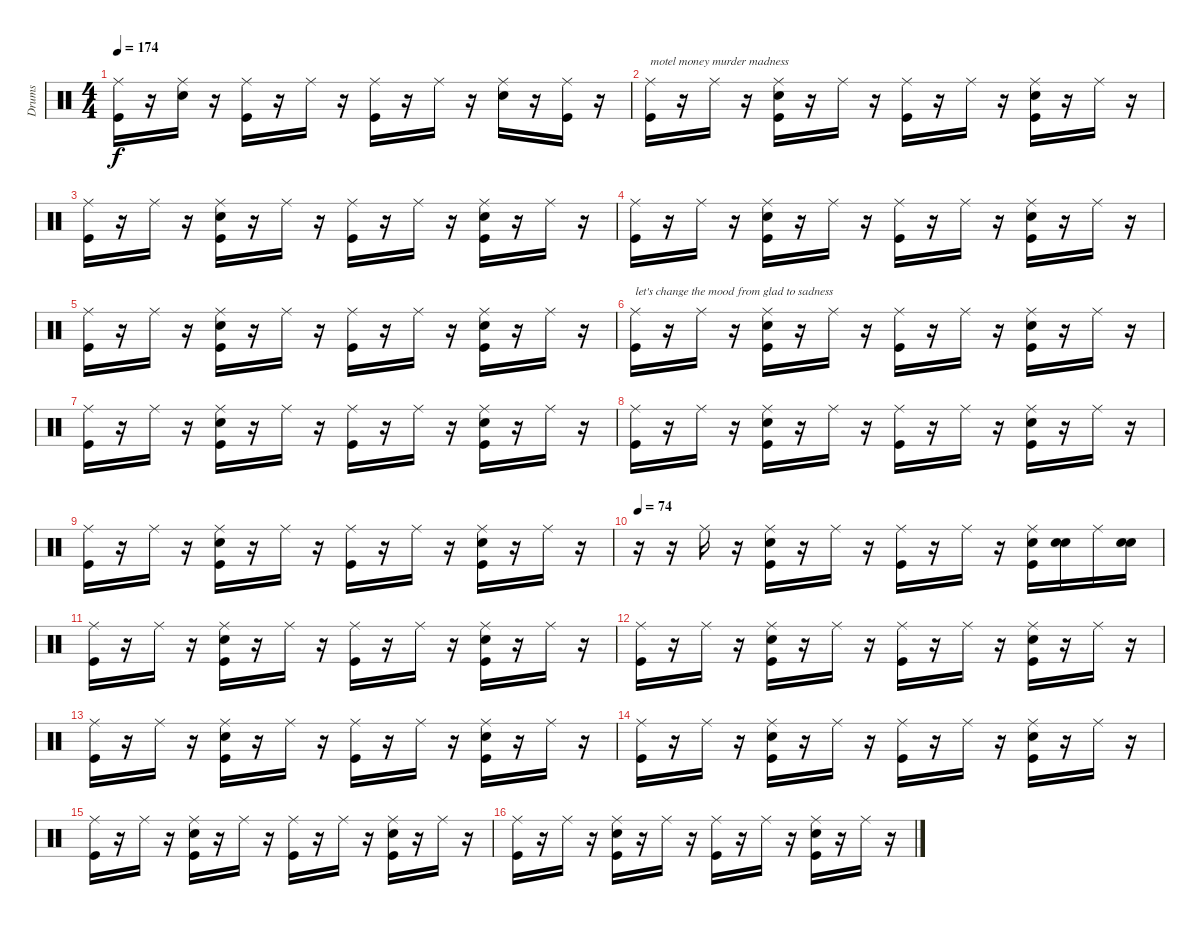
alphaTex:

\track ("Drums" "Drums") {instrument percussion}
\staff {score}
\articulation defaults
\ts (4 4)
\tempo 174
\clef neutral
\ks c
("Kick (hit)" "Ride (middle)").16{dy f} r.16 ("Snare (hit) 2" "Ride (middle)").16 r.16 ("Kick (hit)" "Ride (middle)").16 r.16 "Ride (middle)".16 r.16 ("Kick (hit)" "Ride (middle)").16 r.16 "Ride (middle)".16 r.16 ("Snare (hit) 2" "Ride (middle)").16 r.16 ("Kick (hit)" "Ride (middle)").16 r.16 |
("Kick (hit)" "Ride (middle)").16{txt "motel money murder madness"} r.16 "Ride (middle)".16 r.16 ("Kick (hit)" "Snare (hit) 2" "Ride (middle)").16 r.16 "Ride (middle)".16 r.16 ("Kick (hit)" "Ride (middle)").16 r.16 "Ride (middle)".16 r.16 ("Kick (hit)" "Snare (hit) 2" "Ride (middle)").16 r.16 "Ride (middle)".16 r.16 |
("Kick (hit)" "Ride (middle)").16 r.16 "Ride (middle)".16 r.16 ("Kick (hit)" "Snare (hit) 2" "Ride (middle)").16 r.16 "Ride (middle)".16 r.16 ("Kick (hit)" "Ride (middle)").16 r.16 "Ride (middle)".16 r.16 ("Kick (hit)" "Snare (hit) 2" "Ride (middle)").16 r.16 "Ride (middle)".16 r.16 |
("Kick (hit)" "Ride (middle)").16 r.16 "Ride (middle)".16 r.16 ("Kick (hit)" "Snare (hit) 2" "Ride (middle)").16 r.16 "Ride (middle)".16 r.16 ("Kick (hit)" "Ride (middle)").16 r.16 "Ride (middle)".16 r.16 ("Kick (hit)" "Snare (hit) 2" "Ride (middle)").16 r.16 "Ride (middle)".16 r.16 |
("Kick (hit)" "Ride (middle)").16 r.16 "Ride (middle)".16 r.16 ("Kick (hit)" "Snare (hit) 2" "Ride (middle)").16 r.16 "Ride (middle)".16 r.16 ("Kick (hit)" "Ride (middle)").16 r.16 "Ride (middle)".16 r.16 ("Kick (hit)" "Snare (hit) 2" "Ride (middle)").16 r.16 "Ride (middle)".16 r.16 |
("Kick (hit)" "Ride (middle)").16{txt "let's change the mood from glad to sadness"} r.16 "Ride (middle)".16 r.16 ("Kick (hit)" "Snare (hit) 2" "Ride (middle)").16 r.16 "Ride (middle)".16 r.16 ("Kick (hit)" "Ride (middle)").16 r.16 "Ride (middle)".16 r.16 ("Kick (hit)" "Snare (hit) 2" "Ride (middle)").16 r.16 "Ride (middle)".16 r.16 |
("Kick (hit)" "Ride (middle)").16 r.16 "Ride (middle)".16 r.16 ("Kick (hit)" "Snare (hit) 2" "Ride (middle)").16 r.16 "Ride (middle)".16 r.16 ("Kick (hit)" "Ride (middle)").16 r.16 "Ride (middle)".16 r.16 ("Kick (hit)" "Snare (hit) 2" "Ride (middle)").16 r.16 "Ride (middle)".16 r.16 |
("Kick (hit)" "Ride (middle)").16 r.16 "Ride (middle)".16 r.16 ("Kick (hit)" "Snare (hit) 2" "Ride (middle)").16 r.16 "Ride (middle)".16 r.16 ("Kick (hit)" "Ride (middle)").16 r.16 "Ride (middle)".16 r.16 ("Kick (hit)" "Snare (hit) 2" "Ride (middle)").16 r.16 "Ride (middle)".16 r.16 |
("Kick (hit)" "Ride (middle)").16 r.16 "Ride (middle)".16 r.16 ("Kick (hit)" "Snare (hit) 2" "Ride (middle)").16 r.16 "Ride (middle)".16 r.16 ("Kick (hit)" "Ride (middle)").16 r.16 "Ride (middle)".16 r.16 ("Kick (hit)" "Snare (hit) 2" "Ride (middle)").16 r.16 "Ride (middle)".16 r.16 |
\tempo 74
r.16 r.16 "Ride (middle)".16 r.16 ("Kick (hit)" "Snare (hit) 2" "Ride (middle)").16 r.16 "Ride (middle)".16 r.16 ("Kick (hit)" "Ride (middle)").16 r.16 "Ride (middle)".16 r.16 ("Kick (hit)" "Snare (hit) 2" "Ride (middle)").16 ("Snare (hit) 2" "Snare (hit) 2").16 "Ride (middle)".16 ("Snare (hit) 2" "Snare (hit) 2").16 |
("Kick (hit)" "Ride (middle)").16 r.16 "Ride (middle)".16 r.16 ("Kick (hit)" "Snare (hit) 2" "Ride (middle)").16 r.16 "Ride (middle)".16 r.16 ("Kick (hit)" "Ride (middle)").16 r.16 "Ride (middle)".16 r.16 ("Kick (hit)" "Snare (hit) 2" "Ride (middle)").16 r.16 "Ride (middle)".16 r.16 |
("Kick (hit)" "Ride (middle)").16 r.16 "Ride (middle)".16 r.16 ("Kick (hit)" "Snare (hit) 2" "Ride (middle)").16 r.16 "Ride (middle)".16 r.16 ("Kick (hit)" "Ride (middle)").16 r.16 "Ride (middle)".16 r.16 ("Kick (hit)" "Snare (hit) 2" "Ride (middle)").16 r.16 "Ride (middle)".16 r.16 |
("Kick (hit)" "Ride (middle)").16 r.16 "Ride (middle)".16 r.16 ("Kick (hit)" "Snare (hit) 2" "Ride (middle)").16 r.16 "Ride (middle)".16 r.16 ("Kick (hit)" "Ride (middle)").16 r.16 "Ride (middle)".16 r.16 ("Kick (hit)" "Snare (hit) 2" "Ride (middle)").16 r.16 "Ride (middle)".16 r.16 |
("Kick (hit)" "Ride (middle)").16 r.16 "Ride (middle)".16 r.16 ("Kick (hit)" "Snare (hit) 2" "Ride (middle)").16 r.16 "Ride (middle)".16 r.16 ("Kick (hit)" "Ride (middle)").16 r.16 "Ride (middle)".16 r.16 ("Kick (hit)" "Snare (hit) 2" "Ride (middle)").16 r.16 "Ride (middle)".16 r.16 |
("Kick (hit)" "Ride (middle)").16 r.16 "Ride (middle)".16 r.16 ("Kick (hit)" "Snare (hit) 2" "Ride (middle)").16 r.16 "Ride (middle)".16 r.16 ("Kick (hit)" "Ride (middle)").16 r.16 "Ride (middle)".16 r.16 ("Kick (hit)" "Snare (hit) 2" "Ride (middle)").16 r.16 "Ride (middle)".16 r.16 |
("Kick (hit)" "Ride (middle)").16 r.16 "Ride (middle)".16 r.16 ("Kick (hit)" "Snare (hit) 2" "Ride (middle)").16 r.16 "Ride (middle)".16 r.16 ("Kick (hit)" "Ride (middle)").16 r.16 "Ride (middle)".16 r.16 ("Kick (hit)" "Snare (hit) 2" "Ride (middle)").16 r.16 "Ride (middle)".16 r.16
